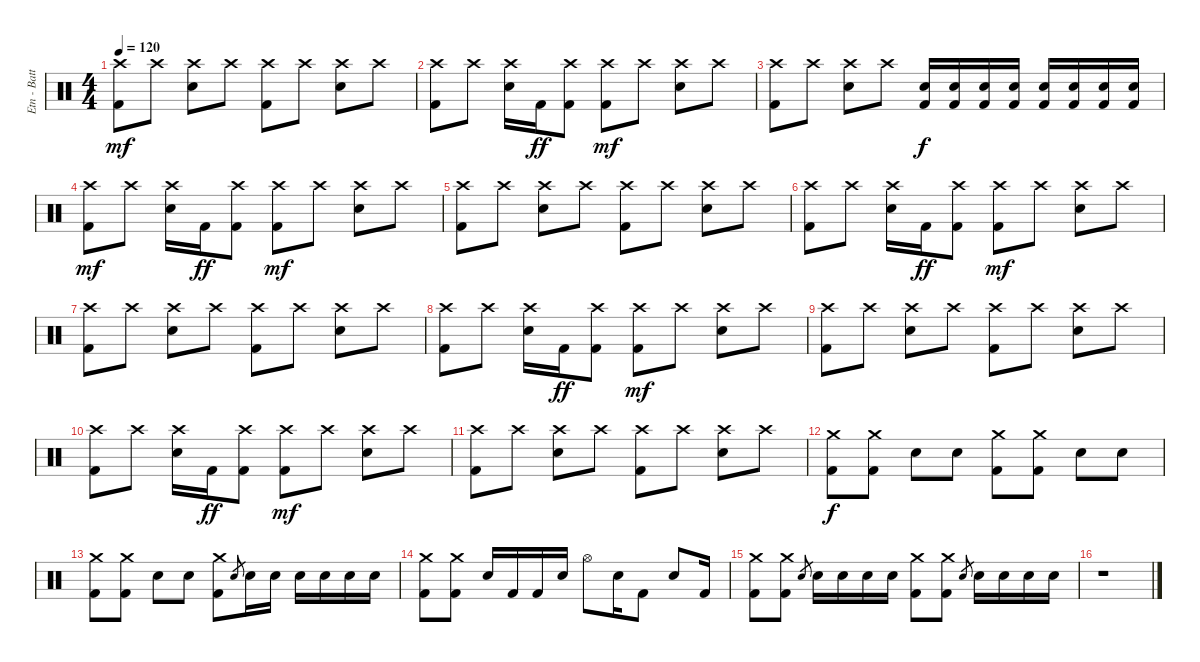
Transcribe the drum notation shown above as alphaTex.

\track ("Etn - Batterie" "Etn - Batt") {instrument percussion}
\staff {score}
\articulation defaults
\ts (4 4)
\tempo 120
\clef neutral
\ks c
("Crash high (hit)" "Kick (hit) 2").8{dy mf} "Crash high (hit)".8 ("Crash high (hit)" "Electric Snare (hit)").8 "Crash high (hit)".8 ("Crash high (hit)" "Kick (hit) 2").8 "Crash high (hit)".8 ("Crash high (hit)" "Electric Snare (hit)").8 "Crash high (hit)".8 |
("Crash high (hit)" "Kick (hit) 2").8 "Crash high (hit)".8 ("Crash high (hit)" "Electric Snare (hit)").16 "Kick (hit) 2".16{dy ff} ("Crash high (hit)" "Kick (hit) 2").8 ("Crash high (hit)" "Kick (hit) 2").8{dy mf} "Crash high (hit)".8 ("Crash high (hit)" "Electric Snare (hit)").8 "Crash high (hit)".8 |
("Crash high (hit)" "Kick (hit) 2").8 "Crash high (hit)".8 ("Crash high (hit)" "Electric Snare (hit)").8 "Crash high (hit)".8 ("Electric Snare (hit)" "Kick (hit) 2").16{dy f} ("Electric Snare (hit)" "Kick (hit) 2").16 ("Electric Snare (hit)" "Kick (hit) 2").16 ("Electric Snare (hit)" "Kick (hit) 2").16 ("Electric Snare (hit)" "Kick (hit) 2").16 ("Electric Snare (hit)" "Kick (hit) 2").16 ("Electric Snare (hit)" "Kick (hit) 2").16 ("Electric Snare (hit)" "Kick (hit) 2").16 |
("Crash high (hit)" "Kick (hit) 2").8{dy mf} "Crash high (hit)".8 ("Crash high (hit)" "Electric Snare (hit)").16 "Kick (hit) 2".16{dy ff} ("Crash high (hit)" "Kick (hit) 2").8 ("Crash high (hit)" "Kick (hit) 2").8{dy mf} "Crash high (hit)".8 ("Crash high (hit)" "Electric Snare (hit)").8 "Crash high (hit)".8 |
("Crash high (hit)" "Kick (hit) 2").8 "Crash high (hit)".8 ("Crash high (hit)" "Electric Snare (hit)").8 "Crash high (hit)".8 ("Crash high (hit)" "Kick (hit) 2").8 "Crash high (hit)".8 ("Crash high (hit)" "Electric Snare (hit)").8 "Crash high (hit)".8 |
("Crash high (hit)" "Kick (hit) 2").8 "Crash high (hit)".8 ("Crash high (hit)" "Electric Snare (hit)").16 "Kick (hit) 2".16{dy ff} ("Crash high (hit)" "Kick (hit) 2").8 ("Crash high (hit)" "Kick (hit) 2").8{dy mf} "Crash high (hit)".8 ("Crash high (hit)" "Electric Snare (hit)").8 "Crash high (hit)".8 |
("Crash high (hit)" "Kick (hit) 2").8 "Crash high (hit)".8 ("Crash high (hit)" "Electric Snare (hit)").8 "Crash high (hit)".8 ("Crash high (hit)" "Kick (hit) 2").8 "Crash high (hit)".8 ("Crash high (hit)" "Electric Snare (hit)").8 "Crash high (hit)".8 |
("Crash high (hit)" "Kick (hit) 2").8 "Crash high (hit)".8 ("Crash high (hit)" "Electric Snare (hit)").16 "Kick (hit) 2".16{dy ff} ("Crash high (hit)" "Kick (hit) 2").8 ("Crash high (hit)" "Kick (hit) 2").8{dy mf} "Crash high (hit)".8 ("Crash high (hit)" "Electric Snare (hit)").8 "Crash high (hit)".8 |
("Crash high (hit)" "Kick (hit) 2").8 "Crash high (hit)".8 ("Crash high (hit)" "Electric Snare (hit)").8 "Crash high (hit)".8 ("Crash high (hit)" "Kick (hit) 2").8 "Crash high (hit)".8 ("Crash high (hit)" "Electric Snare (hit)").8 "Crash high (hit)".8 |
("Crash high (hit)" "Kick (hit) 2").8 "Crash high (hit)".8 ("Crash high (hit)" "Electric Snare (hit)").16 "Kick (hit) 2".16{dy ff} ("Crash high (hit)" "Kick (hit) 2").8 ("Crash high (hit)" "Kick (hit) 2").8{dy mf} "Crash high (hit)".8 ("Crash high (hit)" "Electric Snare (hit)").8 "Crash high (hit)".8 |
("Crash high (hit)" "Kick (hit) 2").8 "Crash high (hit)".8 ("Crash high (hit)" "Electric Snare (hit)").8 "Crash high (hit)".8 ("Crash high (hit)" "Kick (hit) 2").8 "Crash high (hit)".8 ("Crash high (hit)" "Electric Snare (hit)").8 "Crash high (hit)".8 |
("Crash medium (hit)" "Kick (hit) 2").8{dy f} ("Crash medium (hit)" "Kick (hit) 2").8 "Electric Snare (hit)".8 "Electric Snare (hit)".8 ("Crash medium (hit)" "Kick (hit) 2").8 ("Crash medium (hit)" "Kick (hit) 2").8 "Electric Snare (hit)".8 "Electric Snare (hit)".8 |
("Crash medium (hit)" "Kick (hit) 2").8 ("Crash medium (hit)" "Kick (hit) 2").8 "Electric Snare (hit)".8 "Electric Snare (hit)".8 ("Crash medium (hit)" "Kick (hit) 2").8 "Electric Snare (hit)".8{gr} "Electric Snare (hit)".16 "Electric Snare (hit)".16 "Electric Snare (hit)".16 "Electric Snare (hit)".16 "Electric Snare (hit)".16 "Electric Snare (hit)".16 |
("Crash medium (hit)" "Kick (hit) 2").8 ("Crash medium (hit)" "Kick (hit) 2").8 "Electric Snare (hit)".16 "Kick (hit) 2".16 "Kick (hit) 2".16 "Electric Snare (hit)".16 "Hi-Hat (open)".8 "Electric Snare (hit)".16 "Kick (hit) 2".8 "Electric Snare (hit)".8 "Kick (hit) 2".16 |
("Crash medium (hit)" "Kick (hit) 2").8 ("Crash medium (hit)" "Kick (hit) 2").8 "Electric Snare (hit)".8{gr} "Electric Snare (hit)".16 "Electric Snare (hit)".16 "Electric Snare (hit)".16 "Electric Snare (hit)".16 ("Crash medium (hit)" "Kick (hit) 2").8 ("Crash medium (hit)" "Kick (hit) 2").8 "Electric Snare (hit)".8{gr} "Electric Snare (hit)".16 "Electric Snare (hit)".16 "Electric Snare (hit)".16 "Electric Snare (hit)".16 |
r.1
